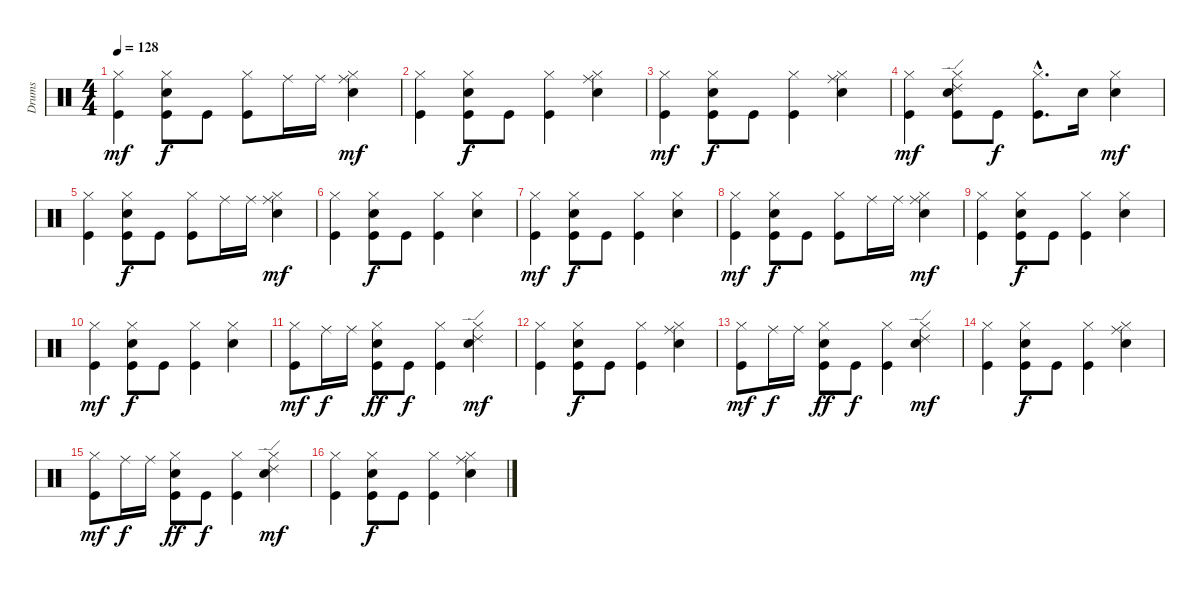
\track ("Drums               " "Drums     ") {instrument percussion}
\staff {score}
\articulation defaults
\ts (4 4)
\tempo 128
\clef neutral
\ks c
("Hi-Hat (closed)" "Kick (hit)").4{dy mf} ("Hi-Hat (closed)" "Electric Snare (hit)" "Kick (hit)").8{dy f} "Kick (hit)".8 ("Hi-Hat (closed)" "Kick (hit)").8 "Ride (middle)".16 "Ride (middle)".16 ("Ride (middle)" "Hi-Hat (closed)" "Electric Snare (hit)").4{dy mf} |
("Hi-Hat (closed)" "Kick (hit)").4 ("Hi-Hat (closed)" "Electric Snare (hit)" "Kick (hit)").8{dy f} "Kick (hit)".8 ("Hi-Hat (closed)" "Kick (hit)").4 ("Ride (middle)" "Hi-Hat (closed)" "Electric Snare (hit)").4 |
("Hi-Hat (closed)" "Kick (hit)").4{dy mf} ("Hi-Hat (closed)" "Electric Snare (hit)" "Kick (hit)").8{dy f} "Kick (hit)".8 ("Hi-Hat (closed)" "Kick (hit)").4 ("Ride (middle)" "Hi-Hat (closed)" "Electric Snare (hit)").4 |
("Hi-Hat (closed)" "Kick (hit)").4{dy mf} ("Ride (edge) 2" "Hi-Hat (closed)" "Electric Snare (hit)" "Kick (hit)").8 "Kick (hit)".8{dy f} ("Hi-Hat (closed)"{hac} "Kick (hit)"{hac}).8{d} "Electric Snare (hit)".16 ("Hi-Hat (closed)" "Electric Snare (hit)").4{dy mf} |
("Hi-Hat (closed)" "Kick (hit)").4 ("Hi-Hat (closed)" "Electric Snare (hit)" "Kick (hit)").8{dy f} "Kick (hit)".8 ("Hi-Hat (closed)" "Kick (hit)").8 "Ride (middle)".16 "Ride (middle)".16 ("Ride (middle)" "Hi-Hat (closed)" "Electric Snare (hit)").4{dy mf} |
("Hi-Hat (closed)" "Kick (hit)").4 ("Hi-Hat (closed)" "Electric Snare (hit)" "Kick (hit)").8{dy f} "Kick (hit)".8 ("Hi-Hat (closed)" "Kick (hit)").4 ("Hi-Hat (closed)" "Electric Snare (hit)").4 |
("Hi-Hat (closed)" "Kick (hit)").4{dy mf} ("Hi-Hat (closed)" "Electric Snare (hit)" "Kick (hit)").8{dy f} "Kick (hit)".8 ("Hi-Hat (closed)" "Kick (hit)").4 ("Hi-Hat (closed)" "Electric Snare (hit)").4 |
("Hi-Hat (closed)" "Kick (hit)").4{dy mf} ("Hi-Hat (closed)" "Electric Snare (hit)" "Kick (hit)").8{dy f} "Kick (hit)".8 ("Hi-Hat (closed)" "Kick (hit)").8 "Ride (middle)".16 "Ride (middle)".16 ("Ride (middle)" "Hi-Hat (closed)" "Electric Snare (hit)").4{dy mf} |
("Hi-Hat (closed)" "Kick (hit)").4 ("Hi-Hat (closed)" "Electric Snare (hit)" "Kick (hit)").8{dy f} "Kick (hit)".8 ("Hi-Hat (closed)" "Kick (hit)").4 ("Hi-Hat (closed)" "Electric Snare (hit)").4 |
("Hi-Hat (closed)" "Kick (hit)").4{dy mf} ("Hi-Hat (closed)" "Electric Snare (hit)" "Kick (hit)").8{dy f} "Kick (hit)".8 ("Hi-Hat (closed)" "Kick (hit)").4 ("Hi-Hat (closed)" "Electric Snare (hit)").4 |
("Hi-Hat (closed)" "Kick (hit)").8{dy mf} "Ride (middle)".16{dy f} "Ride (middle)".16 ("Hi-Hat (closed)" "Electric Snare (hit)" "Kick (hit)").8{dy ff} "Kick (hit)".8{dy f} ("Hi-Hat (closed)" "Kick (hit)").4 ("Ride (edge) 2" "Hi-Hat (closed)" "Electric Snare (hit)").4{dy mf} |
("Hi-Hat (closed)" "Kick (hit)").4 ("Hi-Hat (closed)" "Electric Snare (hit)" "Kick (hit)").8{dy f} "Kick (hit)".8 ("Hi-Hat (closed)" "Kick (hit)").4 ("Ride (middle)" "Hi-Hat (closed)" "Electric Snare (hit)").4 |
("Hi-Hat (closed)" "Kick (hit)").8{dy mf} "Ride (middle)".16{dy f} "Ride (middle)".16 ("Hi-Hat (closed)" "Electric Snare (hit)" "Kick (hit)").8{dy ff} "Kick (hit)".8{dy f} ("Hi-Hat (closed)" "Kick (hit)").4 ("Ride (edge) 2" "Hi-Hat (closed)" "Electric Snare (hit)").4{dy mf} |
("Hi-Hat (closed)" "Kick (hit)").4 ("Hi-Hat (closed)" "Electric Snare (hit)" "Kick (hit)").8{dy f} "Kick (hit)".8 ("Hi-Hat (closed)" "Kick (hit)").4 ("Ride (middle)" "Hi-Hat (closed)" "Electric Snare (hit)").4 |
("Hi-Hat (closed)" "Kick (hit)").8{dy mf} "Ride (middle)".16{dy f} "Ride (middle)".16 ("Hi-Hat (closed)" "Electric Snare (hit)" "Kick (hit)").8{dy ff} "Kick (hit)".8{dy f} ("Hi-Hat (closed)" "Kick (hit)").4 ("Ride (edge) 2" "Hi-Hat (closed)" "Electric Snare (hit)").4{dy mf} |
("Hi-Hat (closed)" "Kick (hit)").4 ("Hi-Hat (closed)" "Electric Snare (hit)" "Kick (hit)").8{dy f} "Kick (hit)".8 ("Hi-Hat (closed)" "Kick (hit)").4 ("Ride (middle)" "Hi-Hat (closed)" "Electric Snare (hit)").4
